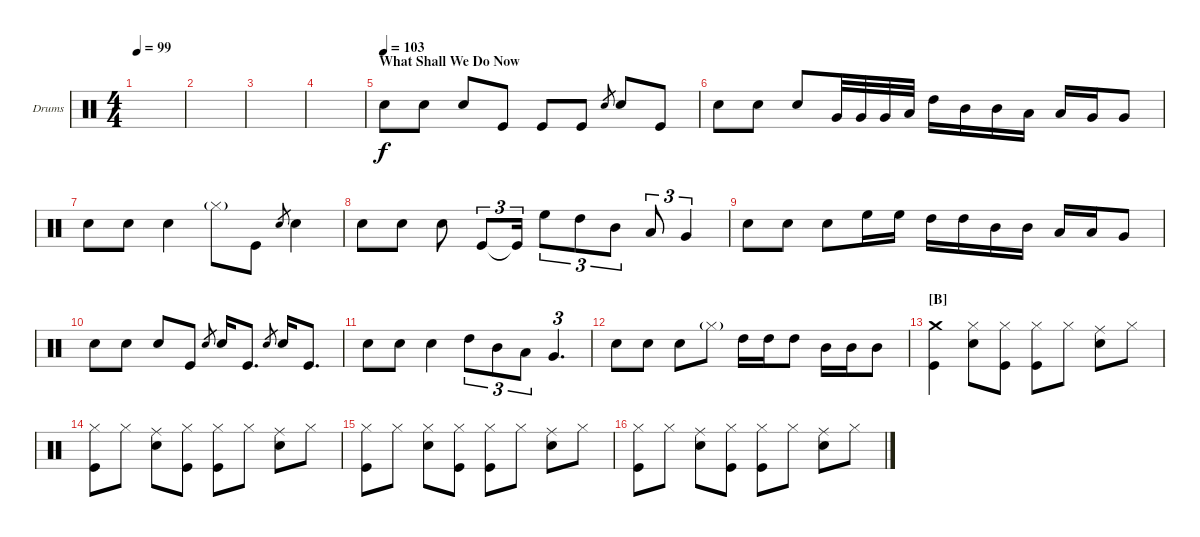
\bracketExtendMode groupsimilarinstruments
\firstSystemTrackNameOrientation horizontal
\otherSystemsTrackNameOrientation horizontal
\track ("Drumkit (Mason)" "Drums") {instrument percussion}
\staff {score}
\articulation defaults
\ts (4 4)
\tempo 99
\clef neutral
\ks c
|
|
|
|
\section ("" "What Shall We Do Now")
\tempo (103)
"Snare (hit) 2".8 "Snare (hit) 2".8 "Snare (hit) 2".8 "Kick (hit)".8 "Kick (hit)".8 "Kick (hit)".8 "Snare (hit) 2".8{gr} "Snare (hit) 2".8 "Kick (hit)".8 |
"Snare (hit) 2".8 "Snare (hit) 2".8 "Snare (hit) 2".8 "Very Low Tom (hit)".32 "Very Low Tom (hit)".32 "Very Low Tom (hit)".32 "Low Tom (hit)".32 "High Tom (hit)".16 "Mid Tom (hit)".16 "Mid Tom (hit)".16 "Low Tom (hit)".16 "Low Tom (hit)".16 "Very Low Tom (hit)".16 "Very Low Tom (hit)".8 |
"Snare (hit) 2".8 "Snare (hit) 2".8 "Snare (hit) 2".4 "Hi-Hat (closed)"{g}.8 "Kick (hit)".8 "Snare (hit) 2".8{gr} "Snare (hit) 2".4 |
"Snare (hit) 2".8 "Snare (hit) 2".8 "Snare (hit) 2".8 "Kick (hit)".8{tu (3 2)} "Kick (hit)"{t}.16{tu (3 2)} "High Floor Tom (hit)".8{tu (3 2)} "High Tom (hit)".8{tu (3 2)} "Mid Tom (hit)".8{tu (3 2)} "Low Tom (hit)".8{tu (3 2)} "Very Low Tom (hit)".4{tu (3 2)} |
"Snare (hit) 2".8 "Snare (hit) 2".8 "Snare (hit) 2".8 "High Floor Tom (hit)".16 "High Floor Tom (hit)".16 "High Tom (hit)".16 "High Tom (hit)".16 "Mid Tom (hit)".16 "Mid Tom (hit)".16 "Low Tom (hit)".16 "Low Tom (hit)".16 "Very Low Tom (hit)".8 |
"Snare (hit) 2".8 "Snare (hit) 2".8 "Snare (hit) 2".8 "Kick (hit)".8 "Snare (hit) 2".8{gr} "Snare (hit) 2".16 "Kick (hit)".8{d} "Snare (hit) 2".8{gr} "Snare (hit) 2".16 "Kick (hit)".8{d} |
"Snare (hit) 2".8 "Snare (hit) 2".8 "Snare (hit) 2".4 "High Tom (hit)".8{tu (3 2)} "Mid Tom (hit)".8{tu (3 2)} "Low Tom (hit)".8{tu (3 2)} "Very Low Tom (hit)".4{d tu (3 2)} |
"Snare (hit) 2".8 "Snare (hit) 2".8 "Snare (hit) 2".8 "Hi-Hat (closed)"{g}.8 "High Tom (hit)".16 "High Tom (hit)".16 "High Tom (hit)".8 "Mid Tom (hit)".16 "Mid Tom (hit)".16 "Mid Tom (hit)".8 |
\section ("B" "")
("Kick (hit)" "Crash medium (hit)").4 ("Snare (hit) 2" "Hi-Hat (closed)").8 ("Hi-Hat (closed)" "Kick (hit)").8 ("Kick (hit)" "Hi-Hat (closed)").8 "Hi-Hat (closed)".8 ("Snare (hit) 2" "Ride (middle)").8 "Hi-Hat (closed)".8 |
("Kick (hit)" "Hi-Hat (closed)").8 "Hi-Hat (closed)".8 ("Snare (hit) 2" "Ride (middle)").8 ("Hi-Hat (closed)" "Kick (hit)").8 ("Kick (hit)" "Hi-Hat (closed)").8 "Hi-Hat (closed)".8 ("Snare (hit) 2" "Ride (middle)").8 "Hi-Hat (closed)".8 |
("Kick (hit)" "Hi-Hat (closed)").8 "Hi-Hat (closed)".8 ("Snare (hit) 2" "Hi-Hat (closed)").8 ("Hi-Hat (closed)" "Kick (hit)").8 ("Kick (hit)" "Hi-Hat (closed)").8 "Hi-Hat (closed)".8 ("Snare (hit) 2" "Ride (middle)").8 "Hi-Hat (closed)".8 |
("Kick (hit)" "Hi-Hat (closed)").8 "Hi-Hat (closed)".8 ("Snare (hit) 2" "Ride (middle)").8 ("Hi-Hat (closed)" "Kick (hit)").8 ("Kick (hit)" "Hi-Hat (closed)").8 "Hi-Hat (closed)".8 ("Snare (hit) 2" "Ride (middle)").8 "Hi-Hat (closed)".8
